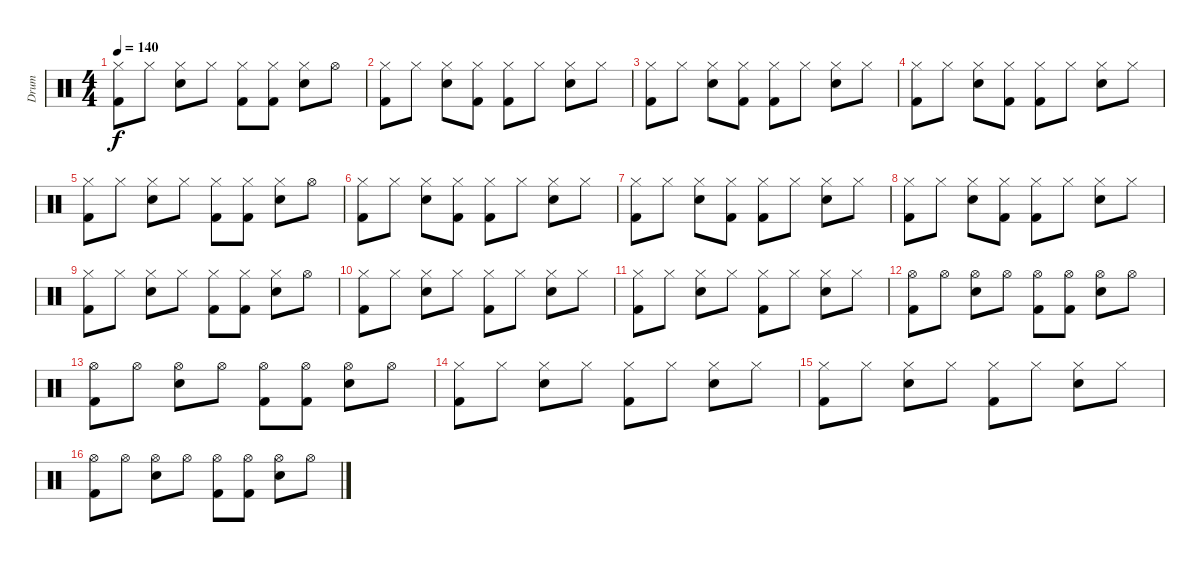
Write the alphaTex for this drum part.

\track ("Drum" "Drum") {instrument percussion}
\staff {score}
\articulation defaults
\ts (4 4)
\tempo 140
\clef neutral
\ks c
("Hi-Hat (closed)" "Kick (hit) 2").8{dy f} "Hi-Hat (closed)".8 ("Hi-Hat (closed)" "Electric Snare (hit)").8 "Hi-Hat (closed)".8 ("Hi-Hat (closed)" "Kick (hit) 2").8 ("Hi-Hat (closed)" "Kick (hit) 2").8 ("Hi-Hat (closed)" "Electric Snare (hit)").8 "Hi-Hat (open)".8 |
("Hi-Hat (closed)" "Kick (hit) 2").8 "Hi-Hat (closed)".8 ("Hi-Hat (closed)" "Electric Snare (hit)").8 ("Hi-Hat (closed)" "Kick (hit) 2").8 ("Hi-Hat (closed)" "Kick (hit) 2").8 "Hi-Hat (closed)".8 ("Hi-Hat (closed)" "Electric Snare (hit)").8 "Hi-Hat (closed)".8 |
("Hi-Hat (closed)" "Kick (hit) 2").8 "Hi-Hat (closed)".8 ("Hi-Hat (closed)" "Electric Snare (hit)").8 ("Hi-Hat (closed)" "Kick (hit) 2").8 ("Hi-Hat (closed)" "Kick (hit) 2").8 "Hi-Hat (closed)".8 ("Hi-Hat (closed)" "Electric Snare (hit)").8 "Hi-Hat (closed)".8 |
("Hi-Hat (closed)" "Kick (hit) 2").8 "Hi-Hat (closed)".8 ("Hi-Hat (closed)" "Electric Snare (hit)").8 ("Hi-Hat (closed)" "Kick (hit) 2").8 ("Hi-Hat (closed)" "Kick (hit) 2").8 "Hi-Hat (closed)".8 ("Hi-Hat (closed)" "Electric Snare (hit)").8 "Hi-Hat (closed)".8 |
("Hi-Hat (closed)" "Kick (hit) 2").8 "Hi-Hat (closed)".8 ("Hi-Hat (closed)" "Electric Snare (hit)").8 "Hi-Hat (closed)".8 ("Hi-Hat (closed)" "Kick (hit) 2").8 ("Hi-Hat (closed)" "Kick (hit) 2").8 ("Hi-Hat (closed)" "Electric Snare (hit)").8 "Hi-Hat (open)".8 |
("Hi-Hat (closed)" "Kick (hit) 2").8 "Hi-Hat (closed)".8 ("Hi-Hat (closed)" "Electric Snare (hit)").8 ("Hi-Hat (closed)" "Kick (hit) 2").8 ("Hi-Hat (closed)" "Kick (hit) 2").8 "Hi-Hat (closed)".8 ("Hi-Hat (closed)" "Electric Snare (hit)").8 "Hi-Hat (closed)".8 |
("Hi-Hat (closed)" "Kick (hit) 2").8 "Hi-Hat (closed)".8 ("Hi-Hat (closed)" "Electric Snare (hit)").8 ("Hi-Hat (closed)" "Kick (hit) 2").8 ("Hi-Hat (closed)" "Kick (hit) 2").8 "Hi-Hat (closed)".8 ("Hi-Hat (closed)" "Electric Snare (hit)").8 "Hi-Hat (closed)".8 |
("Hi-Hat (closed)" "Kick (hit) 2").8 "Hi-Hat (closed)".8 ("Hi-Hat (closed)" "Electric Snare (hit)").8 ("Hi-Hat (closed)" "Kick (hit) 2").8 ("Hi-Hat (closed)" "Kick (hit) 2").8 "Hi-Hat (closed)".8 ("Hi-Hat (closed)" "Electric Snare (hit)").8 "Hi-Hat (closed)".8 |
("Hi-Hat (closed)" "Kick (hit) 2").8 "Hi-Hat (closed)".8 ("Hi-Hat (closed)" "Electric Snare (hit)").8 "Hi-Hat (closed)".8 ("Hi-Hat (closed)" "Kick (hit) 2").8 ("Hi-Hat (closed)" "Kick (hit) 2").8 ("Hi-Hat (closed)" "Electric Snare (hit)").8 "Hi-Hat (open)".8 |
("Hi-Hat (closed)" "Kick (hit) 2").8 "Hi-Hat (closed)".8 ("Hi-Hat (closed)" "Electric Snare (hit)").8 "Hi-Hat (closed)".8 ("Hi-Hat (closed)" "Kick (hit) 2").8 "Hi-Hat (closed)".8 ("Hi-Hat (closed)" "Electric Snare (hit)").8 "Hi-Hat (closed)".8 |
("Hi-Hat (closed)" "Kick (hit) 2").8 "Hi-Hat (closed)".8 ("Hi-Hat (closed)" "Electric Snare (hit)").8 "Hi-Hat (closed)".8 ("Hi-Hat (closed)" "Kick (hit) 2").8 "Hi-Hat (closed)".8 ("Hi-Hat (closed)" "Electric Snare (hit)").8 "Hi-Hat (closed)".8 |
("Hi-Hat (open)" "Kick (hit) 2").8 "Hi-Hat (open)".8 ("Hi-Hat (open)" "Electric Snare (hit)").8 "Hi-Hat (open)".8 ("Hi-Hat (open)" "Kick (hit) 2").8 ("Hi-Hat (open)" "Kick (hit) 2").8 ("Hi-Hat (open)" "Electric Snare (hit)").8 "Hi-Hat (open)".8 |
("Hi-Hat (open)" "Kick (hit) 2").8 "Hi-Hat (open)".8 ("Hi-Hat (open)" "Electric Snare (hit)").8 "Hi-Hat (open)".8 ("Hi-Hat (open)" "Kick (hit) 2").8 ("Hi-Hat (open)" "Kick (hit) 2").8 ("Hi-Hat (open)" "Electric Snare (hit)").8 "Hi-Hat (open)".8 |
("Hi-Hat (closed)" "Kick (hit) 2").8 "Hi-Hat (closed)".8 ("Hi-Hat (closed)" "Electric Snare (hit)").8 "Hi-Hat (closed)".8 ("Hi-Hat (closed)" "Kick (hit) 2").8 "Hi-Hat (closed)".8 ("Hi-Hat (closed)" "Electric Snare (hit)").8 "Hi-Hat (closed)".8 |
("Hi-Hat (closed)" "Kick (hit) 2").8 "Hi-Hat (closed)".8 ("Hi-Hat (closed)" "Electric Snare (hit)").8 "Hi-Hat (closed)".8 ("Hi-Hat (closed)" "Kick (hit) 2").8 "Hi-Hat (closed)".8 ("Hi-Hat (closed)" "Electric Snare (hit)").8 "Hi-Hat (closed)".8 |
("Hi-Hat (open)" "Kick (hit) 2").8 "Hi-Hat (open)".8 ("Hi-Hat (open)" "Electric Snare (hit)").8 "Hi-Hat (open)".8 ("Hi-Hat (open)" "Kick (hit) 2").8 ("Hi-Hat (open)" "Kick (hit) 2").8 ("Hi-Hat (open)" "Electric Snare (hit)").8 "Hi-Hat (open)".8
